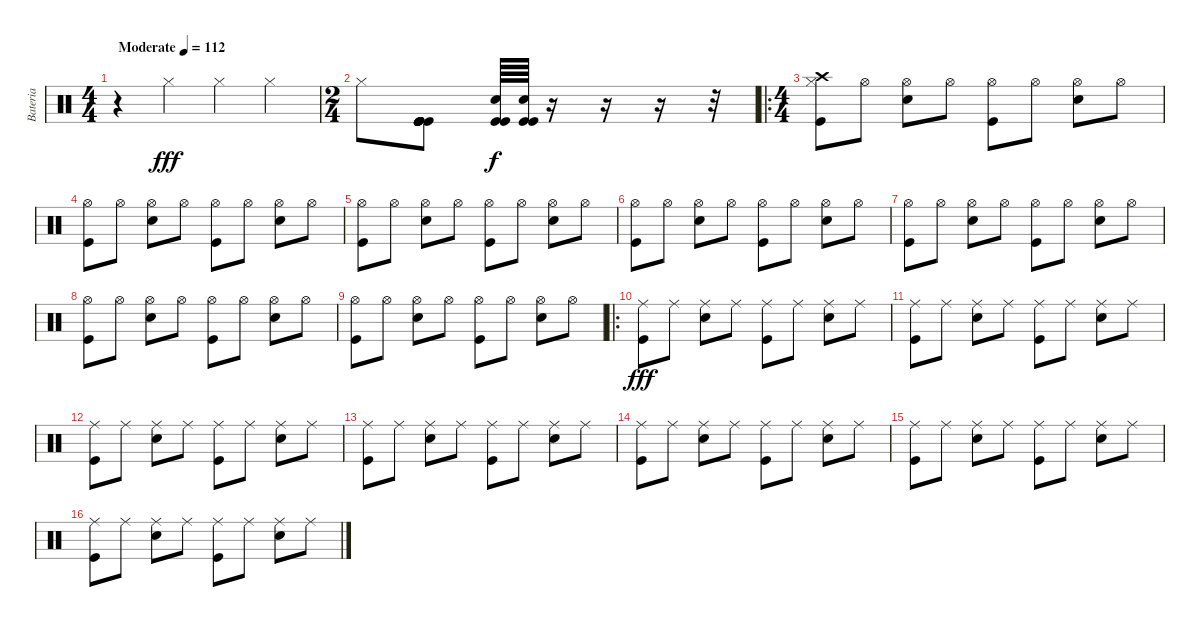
\track ("Bateria" "Bateria") {instrument percussion}
\staff {score}
\articulation defaults
\ts (4 4)
\tempo (112 "Moderate")
\clef neutral
\ks c
r.4{dy fff} "Hi-Hat (closed)".4 "Hi-Hat (closed)".4 "Hi-Hat (closed)".4 |
\ts (2 4)
"Hi-Hat (closed)".8 ("Kick (hit)" "Kick (hit)" "Kick (hit)" "Kick (hit)" "Kick (hit)" "Kick (hit)").8 ("Snare (hit) 2" "Kick (hit)" "Kick (hit)").64{dy f} ("Snare (hit) 2" "Kick (hit)" "Kick (hit)").64 r.16 r.16 r.16 r.32 |
\ro
\ts (4 4)
("Crash high (hit)" "Kick (hit)" "Hi-Hat (closed)").8 "Hi-Hat (open)".8 ("Hi-Hat (open)" "Snare (hit) 2").8 "Hi-Hat (open)".8 ("Hi-Hat (open)" "Kick (hit)").8 "Hi-Hat (open)".8 ("Hi-Hat (open)" "Snare (hit) 2").8 "Hi-Hat (open)".8 |
("Hi-Hat (open)" "Kick (hit)").8 "Hi-Hat (open)".8 ("Hi-Hat (open)" "Snare (hit) 2").8 "Hi-Hat (open)".8 ("Hi-Hat (open)" "Kick (hit)").8 "Hi-Hat (open)".8 ("Hi-Hat (open)" "Snare (hit) 2").8 "Hi-Hat (open)".8 |
("Hi-Hat (open)" "Kick (hit)").8 "Hi-Hat (open)".8 ("Hi-Hat (open)" "Snare (hit) 2").8 "Hi-Hat (open)".8 ("Hi-Hat (open)" "Kick (hit)").8 "Hi-Hat (open)".8 ("Hi-Hat (open)" "Snare (hit) 2").8 "Hi-Hat (open)".8 |
("Hi-Hat (open)" "Kick (hit)").8 "Hi-Hat (open)".8 ("Hi-Hat (open)" "Snare (hit) 2").8 "Hi-Hat (open)".8 ("Hi-Hat (open)" "Kick (hit)").8 "Hi-Hat (open)".8 ("Hi-Hat (open)" "Snare (hit) 2").8 "Hi-Hat (open)".8 |
("Hi-Hat (open)" "Kick (hit)").8 "Hi-Hat (open)".8 ("Hi-Hat (open)" "Snare (hit) 2").8 "Hi-Hat (open)".8 ("Hi-Hat (open)" "Kick (hit)").8 "Hi-Hat (open)".8 ("Hi-Hat (open)" "Snare (hit) 2").8 "Hi-Hat (open)".8 |
("Hi-Hat (open)" "Kick (hit)").8 "Hi-Hat (open)".8 ("Hi-Hat (open)" "Snare (hit) 2").8 "Hi-Hat (open)".8 ("Hi-Hat (open)" "Kick (hit)").8 "Hi-Hat (open)".8 ("Hi-Hat (open)" "Snare (hit) 2").8 "Hi-Hat (open)".8 |
("Hi-Hat (open)" "Kick (hit)").8 "Hi-Hat (open)".8 ("Hi-Hat (open)" "Snare (hit) 2").8 "Hi-Hat (open)".8 ("Hi-Hat (open)" "Kick (hit)").8 "Hi-Hat (open)".8 ("Hi-Hat (open)" "Snare (hit) 2").8 "Hi-Hat (open)".8 |
\ro
("Kick (hit)" "Ride (middle)").8{dy fff} "Ride (middle)".8 ("Ride (middle)" "Snare (hit) 2").8 "Ride (middle)".8 ("Kick (hit)" "Ride (middle)").8 "Ride (middle)".8 ("Ride (middle)" "Snare (hit) 2").8 "Ride (middle)".8 |
("Kick (hit)" "Ride (middle)").8 "Ride (middle)".8 ("Ride (middle)" "Snare (hit) 2").8 "Ride (middle)".8 ("Kick (hit)" "Ride (middle)").8 "Ride (middle)".8 ("Ride (middle)" "Snare (hit) 2").8 "Ride (middle)".8 |
("Kick (hit)" "Ride (middle)").8 "Ride (middle)".8 ("Ride (middle)" "Snare (hit) 2").8 "Ride (middle)".8 ("Kick (hit)" "Ride (middle)").8 "Ride (middle)".8 ("Ride (middle)" "Snare (hit) 2").8 "Ride (middle)".8 |
("Kick (hit)" "Ride (middle)").8 "Ride (middle)".8 ("Ride (middle)" "Snare (hit) 2").8 "Ride (middle)".8 ("Kick (hit)" "Ride (middle)").8 "Ride (middle)".8 ("Ride (middle)" "Snare (hit) 2").8 "Ride (middle)".8 |
("Kick (hit)" "Ride (middle)").8 "Ride (middle)".8 ("Ride (middle)" "Snare (hit) 2").8 "Ride (middle)".8 ("Kick (hit)" "Ride (middle)").8 "Ride (middle)".8 ("Ride (middle)" "Snare (hit) 2").8 "Ride (middle)".8 |
("Kick (hit)" "Ride (middle)").8 "Ride (middle)".8 ("Ride (middle)" "Snare (hit) 2").8 "Ride (middle)".8 ("Kick (hit)" "Ride (middle)").8 "Ride (middle)".8 ("Ride (middle)" "Snare (hit) 2").8 "Ride (middle)".8 |
("Kick (hit)" "Ride (middle)").8 "Ride (middle)".8 ("Ride (middle)" "Snare (hit) 2").8 "Ride (middle)".8 ("Kick (hit)" "Ride (middle)").8 "Ride (middle)".8 ("Ride (middle)" "Snare (hit) 2").8 "Ride (middle)".8
